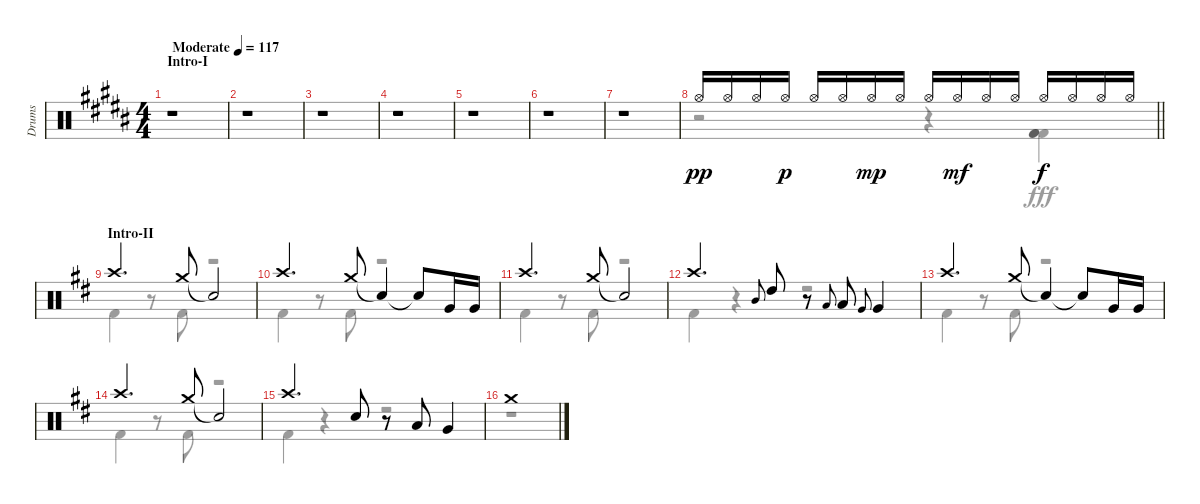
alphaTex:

\track ("Drums" "Drums") {instrument percussion}
\staff {score}
\articulation defaults
\voice
\ts (4 4)
\section ("" "Intro-I")
\tempo (117 "Moderate")
\clef neutral
\ks b
r.1{dy pp} |
r.1 |
r.1 |
r.1 |
r.1 |
r.1 |
r.1 |
\barLineRight lightlight "Hi-Hat (open)".16 "Hi-Hat (open)".16 "Hi-Hat (open)".16 "Hi-Hat (open)".16{dy p} "Hi-Hat (open)".16 "Hi-Hat (open)".16 "Hi-Hat (open)".16{dy mp} "Hi-Hat (open)".16 "Hi-Hat (open)".16 "Hi-Hat (open)".16{dy mf} "Hi-Hat (open)".16 "Hi-Hat (open)".16 "Hi-Hat (open)".16{dy f} "Hi-Hat (open)".16 "Hi-Hat (open)".16 "Hi-Hat (open)".16
|
\section ("" "Intro-II")
\ks d "Crash high (hit)".4{d} "Crash medium (hit)".8 "Snare (hit)"{t}.2
|
"Crash high (hit)".4{d} "Crash medium (hit)".8 "Snare (hit)"{t}.4 "Snare (hit)"{t}.8 "Very Low Tom (hit)".16 "Very Low Tom (hit)".16 |
"Crash high (hit)".4{d} "Crash medium (hit)".8 "Snare (hit)"{t}.2 |
"Crash high (hit)".4{d} "Mid Tom (hit)".8{gr onbeat} "High Tom (hit)".8 r.8 "Low Tom (hit)".8{gr onbeat} "Low Tom (hit)".8 "Very Low Tom (hit)".8{gr onbeat} "Very Low Tom (hit)".4 |
"Crash high (hit)".4{d} "Crash medium (hit)".8 "Snare (hit)"{t}.4 "Snare (hit)"{t}.8 "Very Low Tom (hit)".16 "Very Low Tom (hit)".16 |
"Crash high (hit)".4{d} "Crash medium (hit)".8 "Snare (hit)"{t}.2 |
"Crash high (hit)".4{d} "Snare (hit) 2".8 r.8 "Low Tom (hit)".8 "Very Low Tom (hit)".4 |
"Crash medium (hit)".1
\voice
\clef neutral
\ottava regular
\simile none
\ks b
r.1{dy fff} |
r.1 |
r.1 |
r.1 |
r.1 |
r.1 |
r.1 |
\barLineRight lightlight
r.2 r.4 ("Kick (hit) 2" "Kick (hit) 2" "Kick (hit) 2").4 |
\ks d "Kick (hit) 2".4
r.8 "Kick (hit) 2".8 r.2 |
"Kick (hit) 2".4 r.8 "Kick (hit) 2".8 r.2 |
"Kick (hit) 2".4 r.8 "Kick (hit) 2".8 r.2 |
"Kick (hit) 2".4 r.4 r.2 |
"Kick (hit) 2".4 r.8 "Kick (hit) 2".8 r.2 |
"Kick (hit) 2".4 r.8 "Kick (hit) 2".8 r.2 |
"Kick (hit) 2".4 r.4 r.2 |
r.1
